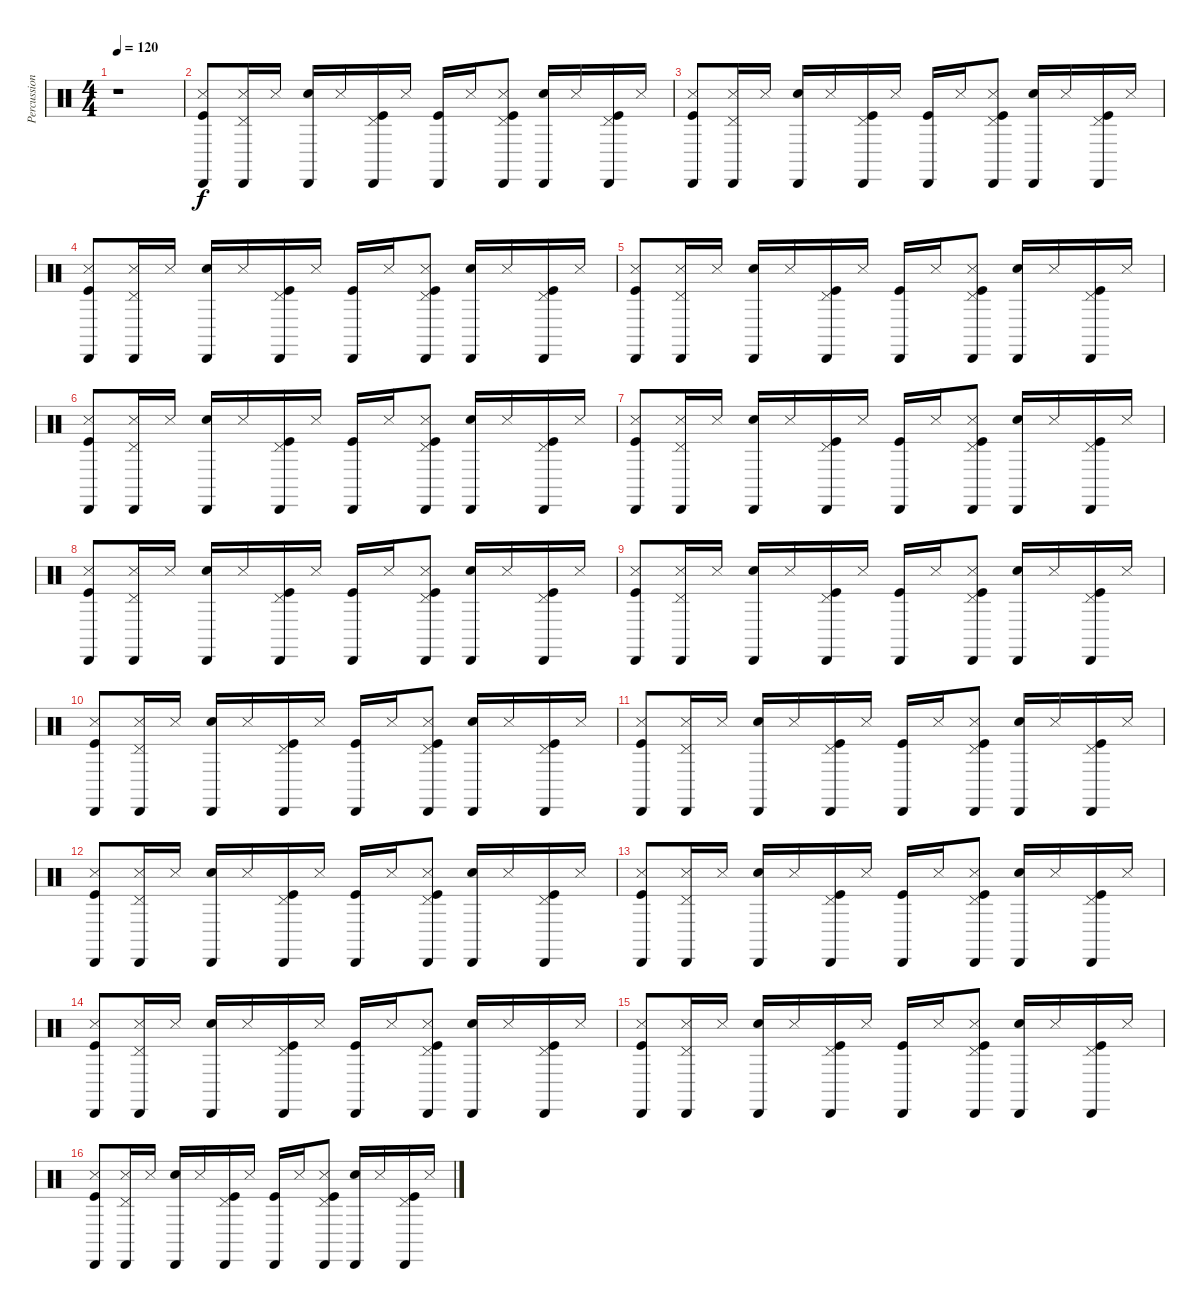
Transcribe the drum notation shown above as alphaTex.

\track ("Percussions" "Percussion") {instrument percussion}
\staff {score}
\articulation defaults
\ts (4 4)
\tempo 120
\clef neutral
\ks c
r.1{dy f} |
("Metronome (hit)" "Cabasa (hit)" "Kick (hit)").8 ("Cabasa (hit)" "Pedal Hi-Hat (hit)" "Metronome (hit)").16 "Metronome (hit)".16 ("Snare (hit) 2" "Cabasa (hit)").16 "Metronome (hit)".16 ("Kick (hit)" "Cabasa (hit)" "Pedal Hi-Hat (hit)").16 "Metronome (hit)".16 ("Kick (hit)" "Cabasa (hit)").16 "Metronome (hit)".16 ("Kick (hit)" "Cabasa (hit)" "Pedal Hi-Hat (hit)" "Metronome (hit)").8 ("Snare (hit) 2" "Cabasa (hit)").16 "Metronome (hit)".16 ("Kick (hit)" "Cabasa (hit)" "Pedal Hi-Hat (hit)").16 "Metronome (hit)".16 |
("Kick (hit)" "Cabasa (hit)" "Metronome (hit)").8 ("Cabasa (hit)" "Pedal Hi-Hat (hit)" "Metronome (hit)").16 "Metronome (hit)".16 ("Snare (hit) 2" "Cabasa (hit)").16 "Metronome (hit)".16 ("Kick (hit)" "Cabasa (hit)" "Pedal Hi-Hat (hit)").16 "Metronome (hit)".16 ("Kick (hit)" "Cabasa (hit)").16 "Metronome (hit)".16 ("Kick (hit)" "Cabasa (hit)" "Pedal Hi-Hat (hit)" "Metronome (hit)").8 ("Snare (hit) 2" "Cabasa (hit)").16 "Metronome (hit)".16 ("Kick (hit)" "Cabasa (hit)" "Pedal Hi-Hat (hit)").16 "Metronome (hit)".16 |
("Kick (hit)" "Cabasa (hit)" "Metronome (hit)").8 ("Cabasa (hit)" "Pedal Hi-Hat (hit)" "Metronome (hit)").16 "Metronome (hit)".16 ("Snare (hit) 2" "Cabasa (hit)").16 "Metronome (hit)".16 ("Kick (hit)" "Cabasa (hit)" "Pedal Hi-Hat (hit)").16 "Metronome (hit)".16 ("Kick (hit)" "Cabasa (hit)").16 "Metronome (hit)".16 ("Kick (hit)" "Cabasa (hit)" "Pedal Hi-Hat (hit)" "Metronome (hit)").8 ("Snare (hit) 2" "Cabasa (hit)").16 "Metronome (hit)".16 ("Kick (hit)" "Cabasa (hit)" "Pedal Hi-Hat (hit)").16 "Metronome (hit)".16 |
("Kick (hit)" "Cabasa (hit)" "Metronome (hit)").8 ("Cabasa (hit)" "Pedal Hi-Hat (hit)" "Metronome (hit)").16 "Metronome (hit)".16 ("Snare (hit) 2" "Cabasa (hit)").16 "Metronome (hit)".16 ("Kick (hit)" "Cabasa (hit)" "Pedal Hi-Hat (hit)").16 "Metronome (hit)".16 ("Kick (hit)" "Cabasa (hit)").16 "Metronome (hit)".16 ("Kick (hit)" "Cabasa (hit)" "Pedal Hi-Hat (hit)" "Metronome (hit)").8 ("Snare (hit) 2" "Cabasa (hit)").16 "Metronome (hit)".16 ("Kick (hit)" "Cabasa (hit)" "Pedal Hi-Hat (hit)").16 "Metronome (hit)".16 |
("Kick (hit)" "Cabasa (hit)" "Metronome (hit)").8 ("Cabasa (hit)" "Pedal Hi-Hat (hit)" "Metronome (hit)").16 "Metronome (hit)".16 ("Snare (hit) 2" "Cabasa (hit)").16 "Metronome (hit)".16 ("Kick (hit)" "Cabasa (hit)" "Pedal Hi-Hat (hit)").16 "Metronome (hit)".16 ("Kick (hit)" "Cabasa (hit)").16 "Metronome (hit)".16 ("Kick (hit)" "Cabasa (hit)" "Pedal Hi-Hat (hit)" "Metronome (hit)").8 ("Snare (hit) 2" "Cabasa (hit)").16 "Metronome (hit)".16 ("Kick (hit)" "Cabasa (hit)" "Pedal Hi-Hat (hit)").16 "Metronome (hit)".16 |
("Kick (hit)" "Cabasa (hit)" "Metronome (hit)").8 ("Cabasa (hit)" "Pedal Hi-Hat (hit)" "Metronome (hit)").16 "Metronome (hit)".16 ("Snare (hit) 2" "Cabasa (hit)").16 "Metronome (hit)".16 ("Kick (hit)" "Cabasa (hit)" "Pedal Hi-Hat (hit)").16 "Metronome (hit)".16 ("Kick (hit)" "Cabasa (hit)").16 "Metronome (hit)".16 ("Kick (hit)" "Cabasa (hit)" "Pedal Hi-Hat (hit)" "Metronome (hit)").8 ("Snare (hit) 2" "Cabasa (hit)").16 "Metronome (hit)".16 ("Kick (hit)" "Cabasa (hit)" "Pedal Hi-Hat (hit)").16 "Metronome (hit)".16 |
("Kick (hit)" "Cabasa (hit)" "Metronome (hit)").8 ("Cabasa (hit)" "Pedal Hi-Hat (hit)" "Metronome (hit)").16 "Metronome (hit)".16 ("Snare (hit) 2" "Cabasa (hit)").16 "Metronome (hit)".16 ("Kick (hit)" "Cabasa (hit)" "Pedal Hi-Hat (hit)").16 "Metronome (hit)".16 ("Kick (hit)" "Cabasa (hit)").16 "Metronome (hit)".16 ("Kick (hit)" "Cabasa (hit)" "Pedal Hi-Hat (hit)" "Metronome (hit)").8 ("Snare (hit) 2" "Cabasa (hit)").16 "Metronome (hit)".16 ("Kick (hit)" "Cabasa (hit)" "Pedal Hi-Hat (hit)").16 "Metronome (hit)".16 |
("Kick (hit)" "Cabasa (hit)" "Metronome (hit)").8 ("Cabasa (hit)" "Pedal Hi-Hat (hit)" "Metronome (hit)").16 "Metronome (hit)".16 ("Snare (hit) 2" "Cabasa (hit)").16 "Metronome (hit)".16 ("Kick (hit)" "Cabasa (hit)" "Pedal Hi-Hat (hit)").16 "Metronome (hit)".16 ("Kick (hit)" "Cabasa (hit)").16 "Metronome (hit)".16 ("Kick (hit)" "Cabasa (hit)" "Pedal Hi-Hat (hit)" "Metronome (hit)").8 ("Snare (hit) 2" "Cabasa (hit)").16 "Metronome (hit)".16 ("Kick (hit)" "Cabasa (hit)" "Pedal Hi-Hat (hit)").16 "Metronome (hit)".16 |
("Kick (hit)" "Cabasa (hit)" "Metronome (hit)").8 ("Cabasa (hit)" "Pedal Hi-Hat (hit)" "Metronome (hit)").16 "Metronome (hit)".16 ("Snare (hit) 2" "Cabasa (hit)").16 "Metronome (hit)".16 ("Kick (hit)" "Cabasa (hit)" "Pedal Hi-Hat (hit)").16 "Metronome (hit)".16 ("Kick (hit)" "Cabasa (hit)").16 "Metronome (hit)".16 ("Kick (hit)" "Cabasa (hit)" "Pedal Hi-Hat (hit)" "Metronome (hit)").8 ("Snare (hit) 2" "Cabasa (hit)").16 "Metronome (hit)".16 ("Kick (hit)" "Cabasa (hit)" "Pedal Hi-Hat (hit)").16 "Metronome (hit)".16 |
("Kick (hit)" "Cabasa (hit)" "Metronome (hit)").8 ("Cabasa (hit)" "Pedal Hi-Hat (hit)" "Metronome (hit)").16 "Metronome (hit)".16 ("Snare (hit) 2" "Cabasa (hit)").16 "Metronome (hit)".16 ("Kick (hit)" "Cabasa (hit)" "Pedal Hi-Hat (hit)").16 "Metronome (hit)".16 ("Kick (hit)" "Cabasa (hit)").16 "Metronome (hit)".16 ("Kick (hit)" "Cabasa (hit)" "Pedal Hi-Hat (hit)" "Metronome (hit)").8 ("Snare (hit) 2" "Cabasa (hit)").16 "Metronome (hit)".16 ("Kick (hit)" "Cabasa (hit)" "Pedal Hi-Hat (hit)").16 "Metronome (hit)".16 |
("Metronome (hit)" "Cabasa (hit)" "Kick (hit)").8 ("Cabasa (hit)" "Pedal Hi-Hat (hit)" "Metronome (hit)").16 "Metronome (hit)".16 ("Snare (hit) 2" "Cabasa (hit)").16 "Metronome (hit)".16 ("Kick (hit)" "Cabasa (hit)" "Pedal Hi-Hat (hit)").16 "Metronome (hit)".16 ("Kick (hit)" "Cabasa (hit)").16 "Metronome (hit)".16 ("Kick (hit)" "Cabasa (hit)" "Pedal Hi-Hat (hit)" "Metronome (hit)").8 ("Snare (hit) 2" "Cabasa (hit)").16 "Metronome (hit)".16 ("Kick (hit)" "Cabasa (hit)" "Pedal Hi-Hat (hit)").16 "Metronome (hit)".16 |
("Kick (hit)" "Cabasa (hit)" "Metronome (hit)").8 ("Cabasa (hit)" "Pedal Hi-Hat (hit)" "Metronome (hit)").16 "Metronome (hit)".16 ("Snare (hit) 2" "Cabasa (hit)").16 "Metronome (hit)".16 ("Kick (hit)" "Cabasa (hit)" "Pedal Hi-Hat (hit)").16 "Metronome (hit)".16 ("Kick (hit)" "Cabasa (hit)").16 "Metronome (hit)".16 ("Kick (hit)" "Cabasa (hit)" "Pedal Hi-Hat (hit)" "Metronome (hit)").8 ("Snare (hit) 2" "Cabasa (hit)").16 "Metronome (hit)".16 ("Kick (hit)" "Cabasa (hit)" "Pedal Hi-Hat (hit)").16 "Metronome (hit)".16 |
("Metronome (hit)" "Cabasa (hit)" "Kick (hit)").8 ("Cabasa (hit)" "Pedal Hi-Hat (hit)" "Metronome (hit)").16 "Metronome (hit)".16 ("Snare (hit) 2" "Cabasa (hit)").16 "Metronome (hit)".16 ("Kick (hit)" "Cabasa (hit)" "Pedal Hi-Hat (hit)").16 "Metronome (hit)".16 ("Kick (hit)" "Cabasa (hit)").16 "Metronome (hit)".16 ("Kick (hit)" "Cabasa (hit)" "Pedal Hi-Hat (hit)" "Metronome (hit)").8 ("Snare (hit) 2" "Cabasa (hit)").16 "Metronome (hit)".16 ("Kick (hit)" "Cabasa (hit)" "Pedal Hi-Hat (hit)").16 "Metronome (hit)".16 |
("Kick (hit)" "Cabasa (hit)" "Metronome (hit)").8 ("Cabasa (hit)" "Pedal Hi-Hat (hit)" "Metronome (hit)").16 "Metronome (hit)".16 ("Snare (hit) 2" "Cabasa (hit)").16 "Metronome (hit)".16 ("Kick (hit)" "Cabasa (hit)" "Pedal Hi-Hat (hit)").16 "Metronome (hit)".16 ("Kick (hit)" "Cabasa (hit)").16 "Metronome (hit)".16 ("Kick (hit)" "Cabasa (hit)" "Pedal Hi-Hat (hit)" "Metronome (hit)").8 ("Snare (hit) 2" "Cabasa (hit)").16 "Metronome (hit)".16 ("Kick (hit)" "Cabasa (hit)" "Pedal Hi-Hat (hit)").16 "Metronome (hit)".16 |
("Metronome (hit)" "Cabasa (hit)" "Kick (hit)").8 ("Cabasa (hit)" "Pedal Hi-Hat (hit)" "Metronome (hit)").16 "Metronome (hit)".16 ("Snare (hit) 2" "Cabasa (hit)").16 "Metronome (hit)".16 ("Kick (hit)" "Cabasa (hit)" "Pedal Hi-Hat (hit)").16 "Metronome (hit)".16 ("Kick (hit)" "Cabasa (hit)").16 "Metronome (hit)".16 ("Kick (hit)" "Cabasa (hit)" "Pedal Hi-Hat (hit)" "Metronome (hit)").8 ("Snare (hit) 2" "Cabasa (hit)").16 "Metronome (hit)".16 ("Kick (hit)" "Cabasa (hit)" "Pedal Hi-Hat (hit)").16 "Metronome (hit)".16
